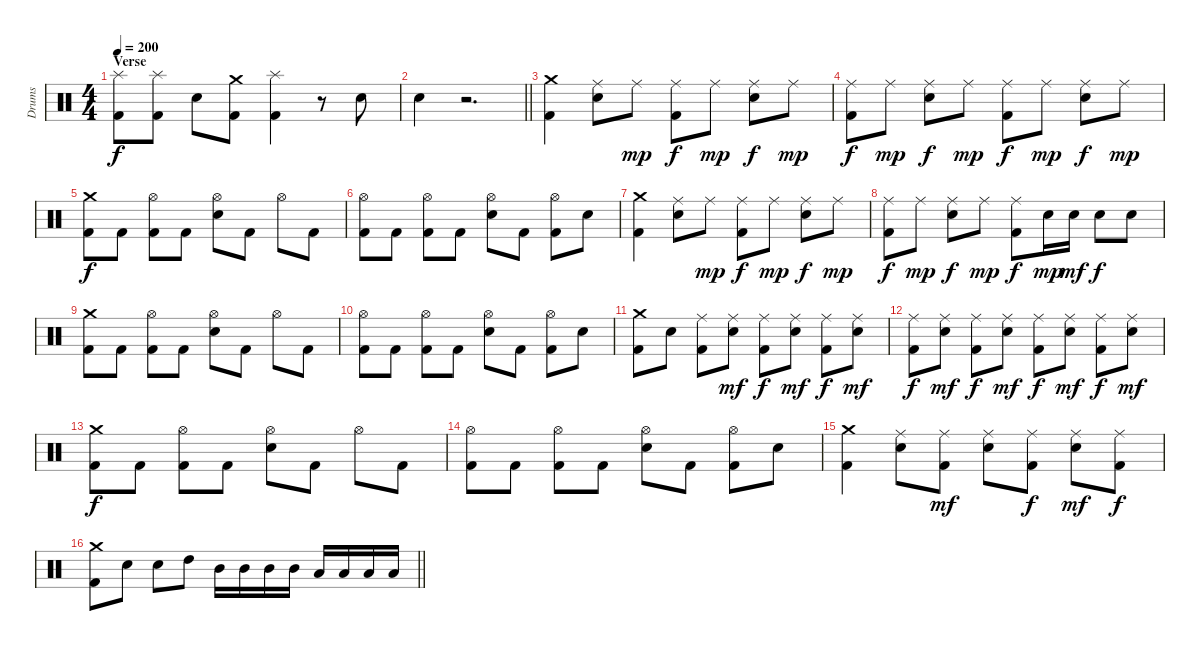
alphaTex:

\track ("Drums" "Drums") {instrument percussion}
\staff {score}
\articulation defaults
\ts (4 4)
\section ("" "Verse")
\tempo 200
\clef neutral
\ks c
("Splash (hit)" "Kick (hit) 2").8{dy f} ("Splash (hit)" "Kick (hit) 2").8 "Electric Snare (hit)".8 ("Crash medium (hit)" "Kick (hit) 2").8 ("Splash (hit)" "Kick (hit) 2").4 r.8 "Electric Snare (hit)".8 |
\barLineRight lightlight "Electric Snare (hit)".4
r.2{d} |
("Crash medium (hit)" "Kick (hit) 2").4 ("Ride (middle)" "Electric Snare (hit)").8 "Ride (middle)".8{dy mp} ("Ride (middle)" "Kick (hit) 2").8{dy f} "Ride (middle)".8{dy mp} ("Ride (middle)" "Electric Snare (hit)").8{dy f} "Ride (middle)".8{dy mp} |
("Ride (middle)" "Kick (hit) 2").8{dy f} "Ride (middle)".8{dy mp} ("Ride (middle)" "Electric Snare (hit)").8{dy f} "Ride (middle)".8{dy mp} ("Ride (middle)" "Kick (hit) 2").8{dy f} "Ride (middle)".8{dy mp} ("Ride (middle)" "Electric Snare (hit)").8{dy f} "Ride (middle)".8{dy mp} |
("Crash medium (hit)" "Kick (hit) 2").8{dy f} "Kick (hit) 2".8 ("Hi-Hat (open)" "Kick (hit) 2").8 "Kick (hit) 2".8 ("Hi-Hat (open)" "Electric Snare (hit)").8 "Kick (hit) 2".8 "Hi-Hat (open)".8 "Kick (hit) 2".8 |
("Hi-Hat (open)" "Kick (hit) 2").8 "Kick (hit) 2".8 ("Hi-Hat (open)" "Kick (hit) 2").8 "Kick (hit) 2".8 ("Hi-Hat (open)" "Electric Snare (hit)").8 "Kick (hit) 2".8 ("Hi-Hat (open)" "Kick (hit) 2").8 "Electric Snare (hit)".8 |
("Crash medium (hit)" "Kick (hit) 2").4 ("Ride (middle)" "Electric Snare (hit)").8 "Ride (middle)".8{dy mp} ("Ride (middle)" "Kick (hit) 2").8{dy f} "Ride (middle)".8{dy mp} ("Ride (middle)" "Electric Snare (hit)").8{dy f} "Ride (middle)".8{dy mp} |
("Ride (middle)" "Kick (hit) 2").8{dy f} "Ride (middle)".8{dy mp} ("Ride (middle)" "Electric Snare (hit)").8{dy f} "Ride (middle)".8{dy mp} ("Ride (middle)" "Kick (hit) 2").8{dy f} "Electric Snare (hit)".16{dy mp} "Electric Snare (hit)".16{dy mf} "Electric Snare (hit)".8{dy f} "Electric Snare (hit)".8 |
("Crash medium (hit)" "Kick (hit) 2").8 "Kick (hit) 2".8 ("Hi-Hat (open)" "Kick (hit) 2").8 "Kick (hit) 2".8 ("Hi-Hat (open)" "Electric Snare (hit)").8 "Kick (hit) 2".8 "Hi-Hat (open)".8 "Kick (hit) 2".8 |
("Hi-Hat (open)" "Kick (hit) 2").8 "Kick (hit) 2".8 ("Hi-Hat (open)" "Kick (hit) 2").8 "Kick (hit) 2".8 ("Hi-Hat (open)" "Electric Snare (hit)").8 "Kick (hit) 2".8 ("Hi-Hat (open)" "Kick (hit) 2").8 "Electric Snare (hit)".8 |
("Crash medium (hit)" "Kick (hit) 2").8 "Electric Snare (hit)".8 ("Ride (middle)" "Kick (hit) 2").8 ("Ride (middle)" "Electric Snare (hit)").8{dy mf} ("Ride (middle)" "Kick (hit) 2").8{dy f} ("Ride (middle)" "Electric Snare (hit)").8{dy mf} ("Ride (middle)" "Kick (hit) 2").8{dy f} ("Ride (middle)" "Electric Snare (hit)").8{dy mf} |
("Ride (middle)" "Kick (hit) 2").8{dy f} ("Ride (middle)" "Electric Snare (hit)").8{dy mf} ("Ride (middle)" "Kick (hit) 2").8{dy f} ("Ride (middle)" "Electric Snare (hit)").8{dy mf} ("Ride (middle)" "Kick (hit) 2").8{dy f} ("Ride (middle)" "Electric Snare (hit)").8{dy mf} ("Ride (middle)" "Kick (hit) 2").8{dy f} ("Ride (middle)" "Electric Snare (hit)").8{dy mf} |
("Crash medium (hit)" "Kick (hit) 2").8{dy f} "Kick (hit) 2".8 ("Hi-Hat (open)" "Kick (hit) 2").8 "Kick (hit) 2".8 ("Hi-Hat (open)" "Electric Snare (hit)").8 "Kick (hit) 2".8 "Hi-Hat (open)".8 "Kick (hit) 2".8 |
("Hi-Hat (open)" "Kick (hit) 2").8 "Kick (hit) 2".8 ("Hi-Hat (open)" "Kick (hit) 2").8 "Kick (hit) 2".8 ("Hi-Hat (open)" "Electric Snare (hit)").8 "Kick (hit) 2".8 ("Hi-Hat (open)" "Kick (hit) 2").8 "Electric Snare (hit)".8 |
("Crash medium (hit)" "Kick (hit) 2").4 ("Ride (middle)" "Electric Snare (hit)").8 ("Ride (middle)" "Kick (hit) 2").8{dy mf} ("Ride (middle)" "Electric Snare (hit)").8 ("Ride (middle)" "Kick (hit) 2").8{dy f} ("Ride (middle)" "Electric Snare (hit)").8{dy mf} ("Ride (middle)" "Kick (hit) 2").8{dy f} |
\barLineRight lightlight
("Crash medium (hit)" "Kick (hit) 2").8 "Electric Snare (hit)".8 "Electric Snare (hit)".8 "High Tom (hit)".8 "Mid Tom (hit)".16 "Mid Tom (hit)".16 "Mid Tom (hit)".16 "Mid Tom (hit)".16 "Low Tom (hit)".16 "Low Tom (hit)".16 "Low Tom (hit)".16 "Low Tom (hit)".16
